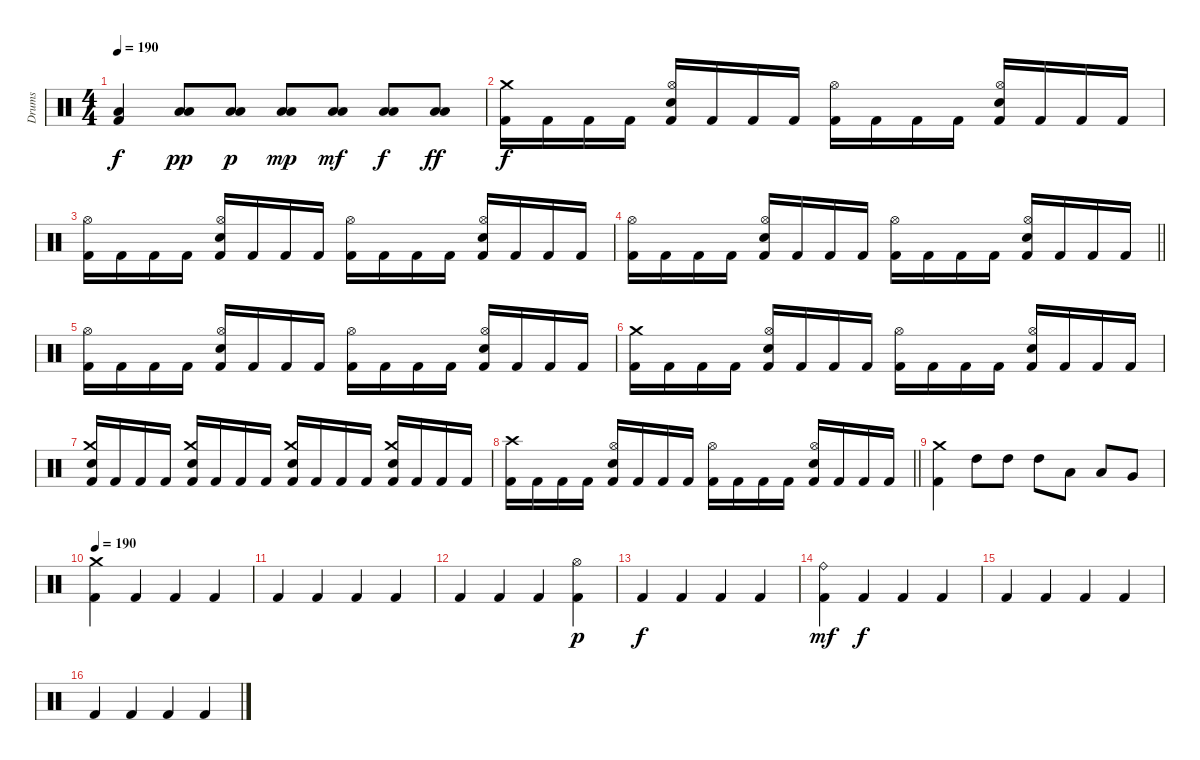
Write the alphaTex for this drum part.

\track ("Drums" "Drums") {instrument percussion}
\staff {score}
\articulation defaults
\ts (4 4)
\tempo 190
\clef neutral
\ks c
("Low Tom (hit)" "Kick (hit) 2").4{dy f} ("Low Tom (hit)" "Low Floor Tom (hit)").8{dy pp} ("Low Tom (hit)" "Low Floor Tom (hit)").8{dy p} ("Low Tom (hit)" "Low Floor Tom (hit)").8{dy mp} ("Low Tom (hit)" "Low Floor Tom (hit)").8{dy mf} ("Low Tom (hit)" "Low Floor Tom (hit)").8{dy f} ("Low Tom (hit)" "Low Floor Tom (hit)").8{dy ff} |
("Crash medium (hit)" "Kick (hit) 2").16{dy f} "Kick (hit) 2".16 "Kick (hit) 2".16 "Kick (hit) 2".16 ("Hi-Hat (open)" "Electric Snare (hit)" "Kick (hit) 2").16 "Kick (hit) 2".16 "Kick (hit) 2".16 "Kick (hit) 2".16 ("Hi-Hat (open)" "Kick (hit) 2").16 "Kick (hit) 2".16 "Kick (hit) 2".16 "Kick (hit) 2".16 ("Hi-Hat (open)" "Electric Snare (hit)" "Kick (hit) 2").16 "Kick (hit) 2".16 "Kick (hit) 2".16 "Kick (hit) 2".16 |
("Hi-Hat (open)" "Kick (hit) 2").16 "Kick (hit) 2".16 "Kick (hit) 2".16 "Kick (hit) 2".16 ("Hi-Hat (open)" "Electric Snare (hit)" "Kick (hit) 2").16 "Kick (hit) 2".16 "Kick (hit) 2".16 "Kick (hit) 2".16 ("Hi-Hat (open)" "Kick (hit) 2").16 "Kick (hit) 2".16 "Kick (hit) 2".16 "Kick (hit) 2".16 ("Hi-Hat (open)" "Electric Snare (hit)" "Kick (hit) 2").16 "Kick (hit) 2".16 "Kick (hit) 2".16 "Kick (hit) 2".16 |
\barLineRight lightlight
("Hi-Hat (open)" "Kick (hit) 2").16 "Kick (hit) 2".16 "Kick (hit) 2".16 "Kick (hit) 2".16 ("Hi-Hat (open)" "Electric Snare (hit)" "Kick (hit) 2").16 "Kick (hit) 2".16 "Kick (hit) 2".16 "Kick (hit) 2".16 ("Hi-Hat (open)" "Kick (hit) 2").16 "Kick (hit) 2".16 "Kick (hit) 2".16 "Kick (hit) 2".16 ("Hi-Hat (open)" "Electric Snare (hit)" "Kick (hit) 2").16 "Kick (hit) 2".16 "Kick (hit) 2".16 "Kick (hit) 2".16 |
("Hi-Hat (open)" "Kick (hit) 2").16 "Kick (hit) 2".16 "Kick (hit) 2".16 "Kick (hit) 2".16 ("Hi-Hat (open)" "Electric Snare (hit)" "Kick (hit) 2").16 "Kick (hit) 2".16 "Kick (hit) 2".16 "Kick (hit) 2".16 ("Hi-Hat (open)" "Kick (hit) 2").16 "Kick (hit) 2".16 "Kick (hit) 2".16 "Kick (hit) 2".16 ("Hi-Hat (open)" "Electric Snare (hit)" "Kick (hit) 2").16 "Kick (hit) 2".16 "Kick (hit) 2".16 "Kick (hit) 2".16 |
("Crash medium (hit)" "Kick (hit) 2").16 "Kick (hit) 2".16 "Kick (hit) 2".16 "Kick (hit) 2".16 ("Hi-Hat (open)" "Electric Snare (hit)" "Kick (hit) 2").16 "Kick (hit) 2".16 "Kick (hit) 2".16 "Kick (hit) 2".16 ("Hi-Hat (open)" "Kick (hit) 2").16 "Kick (hit) 2".16 "Kick (hit) 2".16 "Kick (hit) 2".16 ("Hi-Hat (open)" "Electric Snare (hit)" "Kick (hit) 2").16 "Kick (hit) 2".16 "Kick (hit) 2".16 "Kick (hit) 2".16 |
("Crash medium (hit)" "Electric Snare (hit)" "Kick (hit) 2").16 "Kick (hit) 2".16 "Kick (hit) 2".16 "Kick (hit) 2".16 ("Crash medium (hit)" "Electric Snare (hit)" "Kick (hit) 2").16 "Kick (hit) 2".16 "Kick (hit) 2".16 "Kick (hit) 2".16 ("Crash medium (hit)" "Electric Snare (hit)" "Kick (hit) 2").16 "Kick (hit) 2".16 "Kick (hit) 2".16 "Kick (hit) 2".16 ("Crash medium (hit)" "Electric Snare (hit)" "Kick (hit) 2").16 "Kick (hit) 2".16 "Kick (hit) 2".16 "Kick (hit) 2".16 |
\barLineRight lightlight
("Crash high (hit)" "Kick (hit) 2").16 "Kick (hit) 2".16 "Kick (hit) 2".16 "Kick (hit) 2".16 ("Hi-Hat (open)" "Electric Snare (hit)" "Kick (hit) 2").16 "Kick (hit) 2".16 "Kick (hit) 2".16 "Kick (hit) 2".16 ("Hi-Hat (open)" "Kick (hit) 2").16 "Kick (hit) 2".16 "Kick (hit) 2".16 "Kick (hit) 2".16 ("Hi-Hat (open)" "Electric Snare (hit)" "Kick (hit) 2").16 "Kick (hit) 2".16 "Kick (hit) 2".16 "Kick (hit) 2".16 |
("Crash medium (hit)" "Kick (hit) 2").4 "High Tom (hit)".8 "High Tom (hit)".8 "High Tom (hit)".8 "Low Tom (hit)".8 "Low Tom (hit)".8 "Very Low Tom (hit)".8 |
\tempo 190
("Crash medium (hit)" "Kick (hit) 2").4 "Kick (hit) 2".4 "Kick (hit) 2".4 "Kick (hit) 2".4 |
"Kick (hit) 2".4 "Kick (hit) 2".4 "Kick (hit) 2".4 "Kick (hit) 2".4 |
"Kick (hit) 2".4 "Kick (hit) 2".4 "Kick (hit) 2".4 ("Hi-Hat (open)" "Kick (hit) 2").4{dy p} |
"Kick (hit) 2".4{dy f} "Kick (hit) 2".4 "Kick (hit) 2".4 "Kick (hit) 2".4 |
("Ride (bell)" "Kick (hit) 2").4{dy mf} "Kick (hit) 2".4{dy f} "Kick (hit) 2".4 "Kick (hit) 2".4 |
"Kick (hit) 2".4 "Kick (hit) 2".4 "Kick (hit) 2".4 "Kick (hit) 2".4 |
"Kick (hit) 2".4 "Kick (hit) 2".4 "Kick (hit) 2".4 "Kick (hit) 2".4
